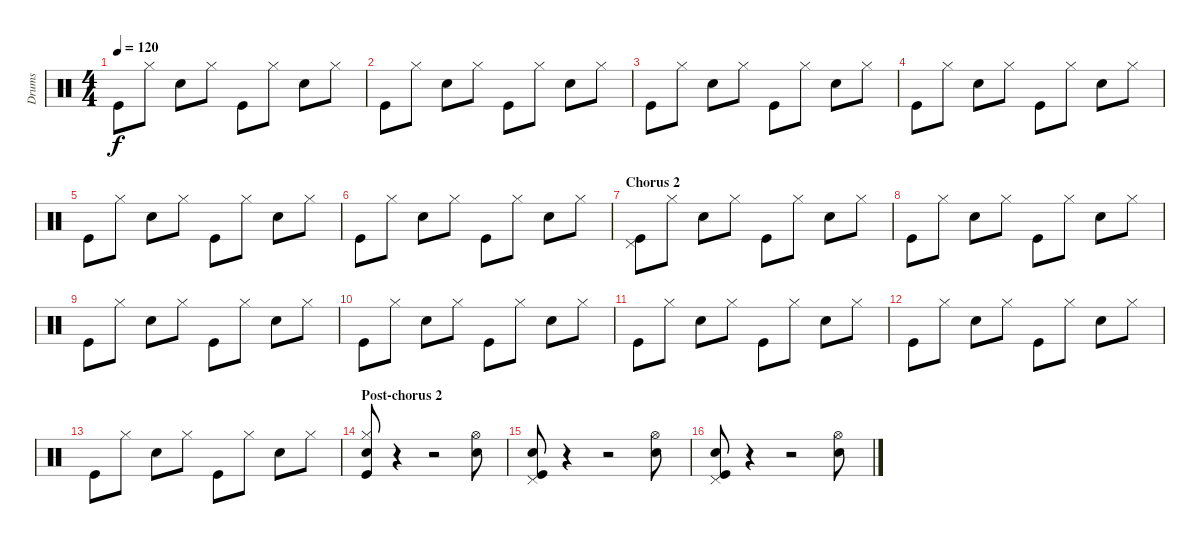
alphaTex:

\track ("Drums" "Drums") {instrument percussion}
\staff {score}
\articulation defaults
\ts (4 4)
\tempo 120
\clef neutral
\ks c "Kick (hit)".8{dy f} "Hi-Hat (closed)".8 "Snare (hit) 2".8 "Hi-Hat (closed)".8 "Kick (hit)".8 "Hi-Hat (closed)".8 "Snare (hit) 2".8 "Hi-Hat (closed)".8
|
"Kick (hit)".8 "Hi-Hat (closed)".8 "Snare (hit) 2".8 "Hi-Hat (closed)".8 "Kick (hit)".8 "Hi-Hat (closed)".8 "Snare (hit) 2".8 "Hi-Hat (closed)".8 |
"Kick (hit)".8 "Hi-Hat (closed)".8 "Snare (hit) 2".8 "Hi-Hat (closed)".8 "Kick (hit)".8 "Hi-Hat (closed)".8 "Snare (hit) 2".8 "Hi-Hat (closed)".8 |
"Kick (hit)".8 "Hi-Hat (closed)".8 "Snare (hit) 2".8 "Hi-Hat (closed)".8 "Kick (hit)".8 "Hi-Hat (closed)".8 "Snare (hit) 2".8 "Hi-Hat (closed)".8 |
"Kick (hit)".8 "Hi-Hat (closed)".8 "Snare (hit) 2".8 "Hi-Hat (closed)".8 "Kick (hit)".8 "Hi-Hat (closed)".8 "Snare (hit) 2".8 "Hi-Hat (closed)".8 |
"Kick (hit)".8 "Hi-Hat (closed)".8 "Snare (hit) 2".8 "Hi-Hat (closed)".8 "Kick (hit)".8 "Hi-Hat (closed)".8 "Snare (hit) 2".8 "Hi-Hat (closed)".8 |
\section ("" "Chorus 2")
("Pedal Hi-Hat (hit)" "Kick (hit)").8 "Hi-Hat (closed)".8 "Snare (hit) 2".8 "Hi-Hat (closed)".8 "Kick (hit)".8 "Hi-Hat (closed)".8 "Snare (hit) 2".8 "Hi-Hat (closed)".8 |
"Kick (hit)".8 "Hi-Hat (closed)".8 "Snare (hit) 2".8 "Hi-Hat (closed)".8 "Kick (hit)".8 "Hi-Hat (closed)".8 "Snare (hit) 2".8 "Hi-Hat (closed)".8 |
"Kick (hit)".8 "Hi-Hat (closed)".8 "Snare (hit) 2".8 "Hi-Hat (closed)".8 "Kick (hit)".8 "Hi-Hat (closed)".8 "Snare (hit) 2".8 "Hi-Hat (closed)".8 |
"Kick (hit)".8 "Hi-Hat (closed)".8 "Snare (hit) 2".8 "Hi-Hat (closed)".8 "Kick (hit)".8 "Hi-Hat (closed)".8 "Snare (hit) 2".8 "Hi-Hat (closed)".8 |
"Kick (hit)".8 "Hi-Hat (closed)".8 "Snare (hit) 2".8 "Hi-Hat (closed)".8 "Kick (hit)".8 "Hi-Hat (closed)".8 "Snare (hit) 2".8 "Hi-Hat (closed)".8 |
"Kick (hit)".8 "Hi-Hat (closed)".8 "Snare (hit) 2".8 "Hi-Hat (closed)".8 "Kick (hit)".8 "Hi-Hat (closed)".8 "Snare (hit) 2".8 "Hi-Hat (closed)".8 |
"Kick (hit)".8 "Hi-Hat (closed)".8 "Snare (hit) 2".8 "Hi-Hat (closed)".8 "Kick (hit)".8 "Hi-Hat (closed)".8 "Snare (hit) 2".8 "Hi-Hat (closed)".8 |
\section ("" "Post-chorus 2")
("Hi-Hat (closed)" "Snare (hit) 2" "Kick (hit)").8 r.4 r.2 ("Hi-Hat (open)" "Snare (hit) 2").8 |
("Pedal Hi-Hat (hit)" "Snare (hit) 2" "Kick (hit)").8 r.4 r.2 ("Hi-Hat (open)" "Snare (hit) 2").8 |
("Pedal Hi-Hat (hit)" "Snare (hit) 2" "Kick (hit)").8 r.4 r.2 ("Hi-Hat (open)" "Snare (hit) 2").8
